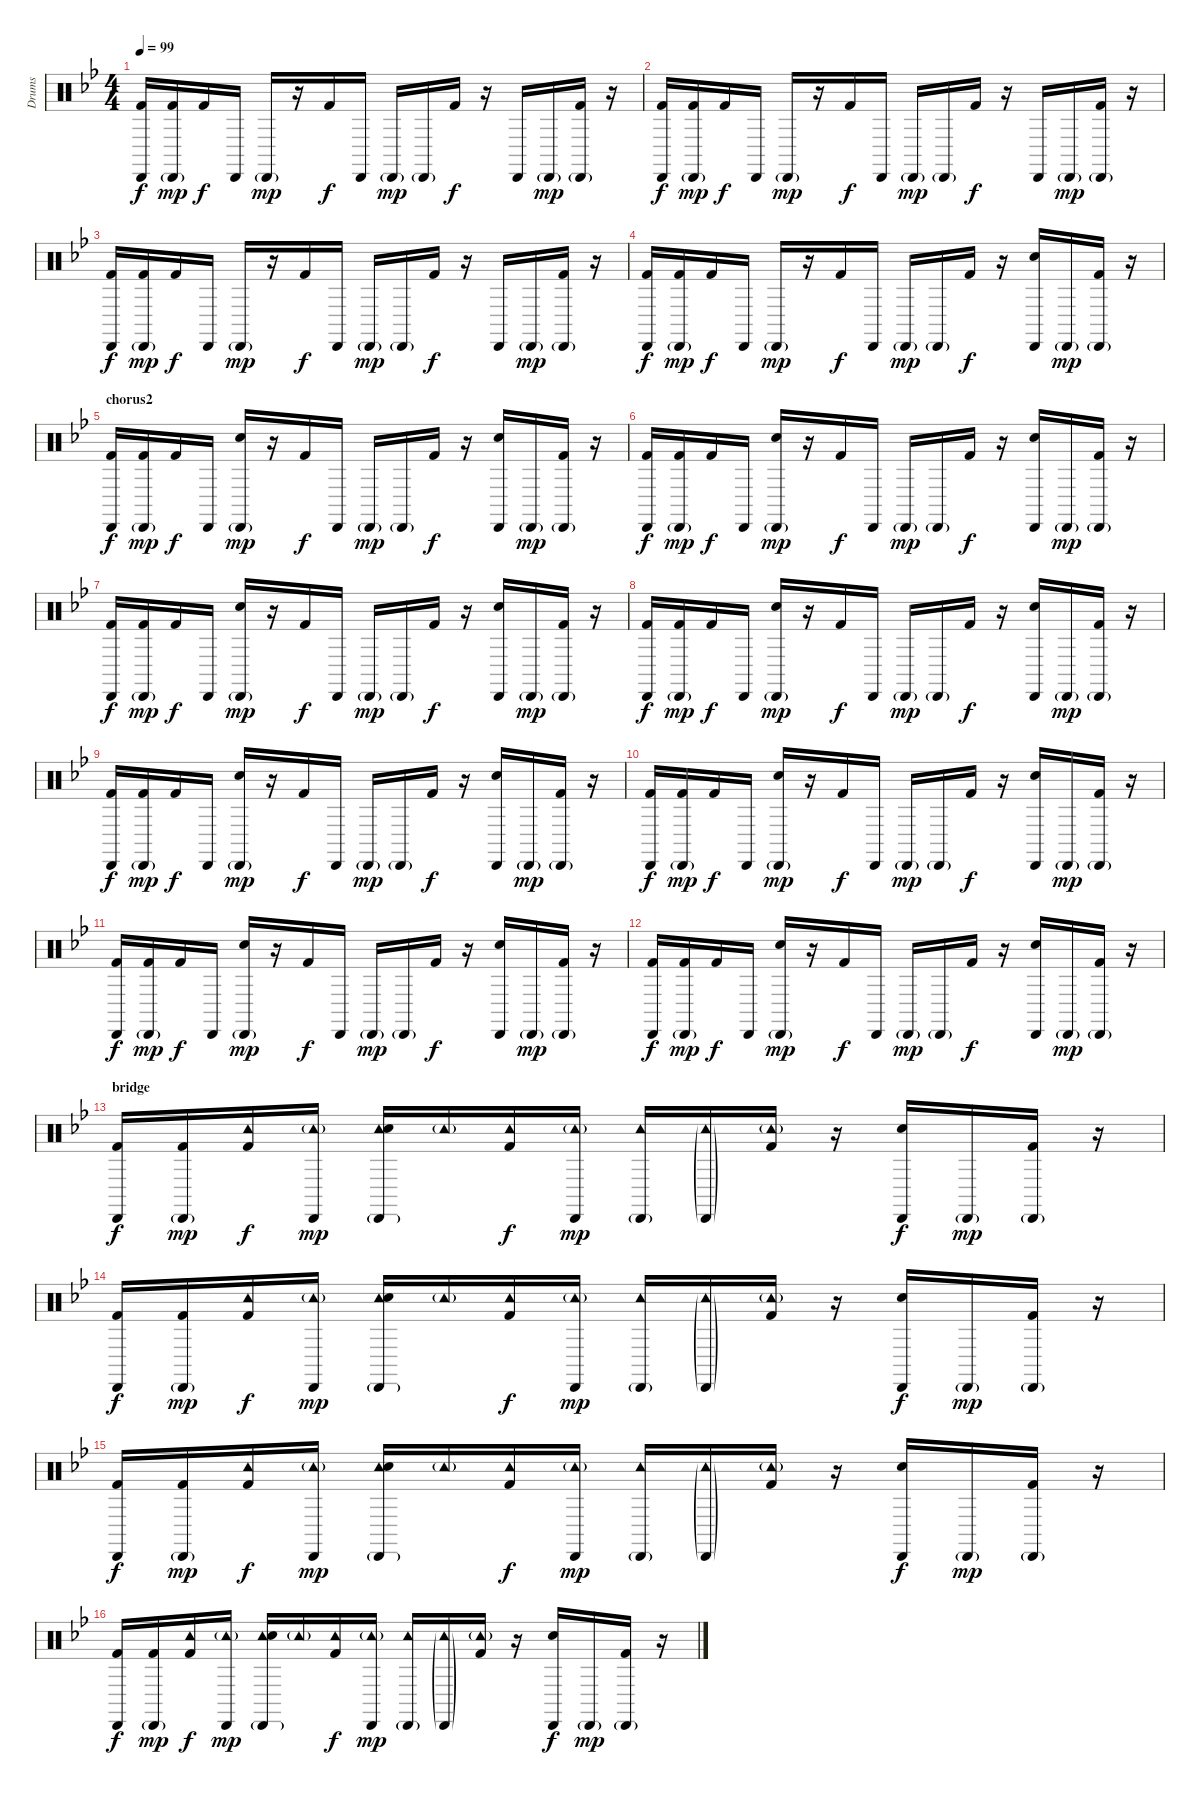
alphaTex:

\track ("Drums" "Drums") {instrument percussion}
\staff {score}
\articulation defaults
\ts (4 4)
\tempo 99
\clef neutral
\ks bb
("Cabasa (hit)" "Kick (hit) 2").16{dy f} ("Cabasa (hit)"{g} "Kick (hit) 2").16{dy mp} "Kick (hit) 2".16{dy f} "Cabasa (hit)".16 "Cabasa (hit)"{g}.16{dy mp} r.16 "Kick (hit) 2".16{dy f} "Cabasa (hit)".16 "Cabasa (hit)"{g}.16{dy mp} "Cabasa (hit)"{g}.16 "Kick (hit) 2".16{dy f} r.16 "Cabasa (hit)".16 "Cabasa (hit)"{g}.16{dy mp} ("Cabasa (hit)"{g} "Kick (hit) 2").16 r.16 |
("Cabasa (hit)" "Kick (hit) 2").16{dy f} ("Cabasa (hit)"{g} "Kick (hit) 2").16{dy mp} "Kick (hit) 2".16{dy f} "Cabasa (hit)".16 "Cabasa (hit)"{g}.16{dy mp} r.16 "Kick (hit) 2".16{dy f} "Cabasa (hit)".16 "Cabasa (hit)"{g}.16{dy mp} "Cabasa (hit)"{g}.16 "Kick (hit) 2".16{dy f} r.16 "Cabasa (hit)".16 "Cabasa (hit)"{g}.16{dy mp} ("Cabasa (hit)"{g} "Kick (hit) 2").16 r.16 |
("Cabasa (hit)" "Kick (hit) 2").16{dy f} ("Cabasa (hit)"{g} "Kick (hit) 2").16{dy mp} "Kick (hit) 2".16{dy f} "Cabasa (hit)".16 "Cabasa (hit)"{g}.16{dy mp} r.16 "Kick (hit) 2".16{dy f} "Cabasa (hit)".16 "Cabasa (hit)"{g}.16{dy mp} "Cabasa (hit)"{g}.16 "Kick (hit) 2".16{dy f} r.16 "Cabasa (hit)".16 "Cabasa (hit)"{g}.16{dy mp} ("Cabasa (hit)"{g} "Kick (hit) 2").16 r.16 |
("Cabasa (hit)" "Kick (hit) 2").16{dy f} ("Cabasa (hit)"{g} "Kick (hit) 2").16{dy mp} "Kick (hit) 2".16{dy f} "Cabasa (hit)".16 "Cabasa (hit)"{g}.16{dy mp} r.16 "Kick (hit) 2".16{dy f} "Cabasa (hit)".16 "Cabasa (hit)"{g}.16{dy mp} "Cabasa (hit)"{g}.16 "Kick (hit) 2".16{dy f} r.16 ("Cabasa (hit)" "Snare (hit) 2").16 "Cabasa (hit)"{g}.16{dy mp} ("Cabasa (hit)"{g} "Kick (hit) 2").16 r.16 |
\section ("" "chorus2")
("Cabasa (hit)" "Kick (hit) 2").16{dy f} ("Cabasa (hit)"{g} "Kick (hit) 2").16{dy mp} "Kick (hit) 2".16{dy f} "Cabasa (hit)".16 ("Cabasa (hit)"{g} "Snare (hit) 2").16{dy mp} r.16 "Kick (hit) 2".16{dy f} "Cabasa (hit)".16 "Cabasa (hit)"{g}.16{dy mp} "Cabasa (hit)"{g}.16 "Kick (hit) 2".16{dy f} r.16 ("Cabasa (hit)" "Snare (hit) 2").16 "Cabasa (hit)"{g}.16{dy mp} ("Cabasa (hit)"{g} "Kick (hit) 2").16 r.16 |
("Cabasa (hit)" "Kick (hit) 2").16{dy f} ("Cabasa (hit)"{g} "Kick (hit) 2").16{dy mp} "Kick (hit) 2".16{dy f} "Cabasa (hit)".16 ("Cabasa (hit)"{g} "Snare (hit) 2").16{dy mp} r.16 "Kick (hit) 2".16{dy f} "Cabasa (hit)".16 "Cabasa (hit)"{g}.16{dy mp} "Cabasa (hit)"{g}.16 "Kick (hit) 2".16{dy f} r.16 ("Cabasa (hit)" "Snare (hit) 2").16 "Cabasa (hit)"{g}.16{dy mp} ("Cabasa (hit)"{g} "Kick (hit) 2").16 r.16 |
("Cabasa (hit)" "Kick (hit) 2").16{dy f} ("Cabasa (hit)"{g} "Kick (hit) 2").16{dy mp} "Kick (hit) 2".16{dy f} "Cabasa (hit)".16 ("Cabasa (hit)"{g} "Snare (hit) 2").16{dy mp} r.16 "Kick (hit) 2".16{dy f} "Cabasa (hit)".16 "Cabasa (hit)"{g}.16{dy mp} "Cabasa (hit)"{g}.16 "Kick (hit) 2".16{dy f} r.16 ("Cabasa (hit)" "Snare (hit) 2").16 "Cabasa (hit)"{g}.16{dy mp} ("Cabasa (hit)"{g} "Kick (hit) 2").16 r.16 |
("Cabasa (hit)" "Kick (hit) 2").16{dy f} ("Cabasa (hit)"{g} "Kick (hit) 2").16{dy mp} "Kick (hit) 2".16{dy f} "Cabasa (hit)".16 ("Cabasa (hit)"{g} "Snare (hit) 2").16{dy mp} r.16 "Kick (hit) 2".16{dy f} "Cabasa (hit)".16 "Cabasa (hit)"{g}.16{dy mp} "Cabasa (hit)"{g}.16 "Kick (hit) 2".16{dy f} r.16 ("Cabasa (hit)" "Snare (hit) 2").16 "Cabasa (hit)"{g}.16{dy mp} ("Cabasa (hit)"{g} "Kick (hit) 2").16 r.16 |
("Cabasa (hit)" "Kick (hit) 2").16{dy f} ("Cabasa (hit)"{g} "Kick (hit) 2").16{dy mp} "Kick (hit) 2".16{dy f} "Cabasa (hit)".16 ("Cabasa (hit)"{g} "Snare (hit) 2").16{dy mp} r.16 "Kick (hit) 2".16{dy f} "Cabasa (hit)".16 "Cabasa (hit)"{g}.16{dy mp} "Cabasa (hit)"{g}.16 "Kick (hit) 2".16{dy f} r.16 ("Cabasa (hit)" "Snare (hit) 2").16 "Cabasa (hit)"{g}.16{dy mp} ("Cabasa (hit)"{g} "Kick (hit) 2").16 r.16 |
("Cabasa (hit)" "Kick (hit) 2").16{dy f} ("Cabasa (hit)"{g} "Kick (hit) 2").16{dy mp} "Kick (hit) 2".16{dy f} "Cabasa (hit)".16 ("Cabasa (hit)"{g} "Snare (hit) 2").16{dy mp} r.16 "Kick (hit) 2".16{dy f} "Cabasa (hit)".16 "Cabasa (hit)"{g}.16{dy mp} "Cabasa (hit)"{g}.16 "Kick (hit) 2".16{dy f} r.16 ("Cabasa (hit)" "Snare (hit) 2").16 "Cabasa (hit)"{g}.16{dy mp} ("Cabasa (hit)"{g} "Kick (hit) 2").16 r.16 |
("Cabasa (hit)" "Kick (hit) 2").16{dy f} ("Cabasa (hit)"{g} "Kick (hit) 2").16{dy mp} "Kick (hit) 2".16{dy f} "Cabasa (hit)".16 ("Cabasa (hit)"{g} "Snare (hit) 2").16{dy mp} r.16 "Kick (hit) 2".16{dy f} "Cabasa (hit)".16 "Cabasa (hit)"{g}.16{dy mp} "Cabasa (hit)"{g}.16 "Kick (hit) 2".16{dy f} r.16 ("Cabasa (hit)" "Snare (hit) 2").16 "Cabasa (hit)"{g}.16{dy mp} ("Cabasa (hit)"{g} "Kick (hit) 2").16 r.16 |
("Cabasa (hit)" "Kick (hit) 2").16{dy f} ("Cabasa (hit)"{g} "Kick (hit) 2").16{dy mp} "Kick (hit) 2".16{dy f} "Cabasa (hit)".16 ("Cabasa (hit)"{g} "Snare (hit) 2").16{dy mp} r.16 "Kick (hit) 2".16{dy f} "Cabasa (hit)".16 "Cabasa (hit)"{g}.16{dy mp} "Cabasa (hit)"{g}.16 "Kick (hit) 2".16{dy f} r.16 ("Cabasa (hit)" "Snare (hit) 2").16 "Cabasa (hit)"{g}.16{dy mp} ("Cabasa (hit)"{g} "Kick (hit) 2").16 r.16 |
\section ("" "bridge")
("Cabasa (hit)" "Kick (hit) 2").16{dy f} ("Cabasa (hit)"{g} "Kick (hit) 2").16{dy mp} ("Tambourine (hit)" "Kick (hit) 2").16{dy f} ("Cabasa (hit)" "Tambourine (hit)"{g}).16{dy mp} ("Cabasa (hit)"{g} "Tambourine (hit)" "Snare (hit) 2").16 "Tambourine (hit)"{g}.16 ("Tambourine (hit)" "Kick (hit) 2").16{dy f} ("Cabasa (hit)" "Tambourine (hit)"{g}).16{dy mp} ("Cabasa (hit)"{g} "Tambourine (hit)").16 ("Cabasa (hit)"{g} "Tambourine (hit)"{g}).16 ("Tambourine (hit)"{g} "Kick (hit) 2").16 r.16 ("Cabasa (hit)" "Snare (hit) 2").16{dy f} "Cabasa (hit)"{g}.16{dy mp} ("Cabasa (hit)"{g} "Kick (hit) 2").16 r.16 |
("Cabasa (hit)" "Kick (hit) 2").16{dy f} ("Cabasa (hit)"{g} "Kick (hit) 2").16{dy mp} ("Tambourine (hit)" "Kick (hit) 2").16{dy f} ("Cabasa (hit)" "Tambourine (hit)"{g}).16{dy mp} ("Cabasa (hit)"{g} "Tambourine (hit)" "Snare (hit) 2").16 "Tambourine (hit)"{g}.16 ("Tambourine (hit)" "Kick (hit) 2").16{dy f} ("Cabasa (hit)" "Tambourine (hit)"{g}).16{dy mp} ("Cabasa (hit)"{g} "Tambourine (hit)").16 ("Cabasa (hit)"{g} "Tambourine (hit)"{g}).16 ("Tambourine (hit)"{g} "Kick (hit) 2").16 r.16 ("Cabasa (hit)" "Snare (hit) 2").16{dy f} "Cabasa (hit)"{g}.16{dy mp} ("Cabasa (hit)"{g} "Kick (hit) 2").16 r.16 |
("Cabasa (hit)" "Kick (hit) 2").16{dy f} ("Cabasa (hit)"{g} "Kick (hit) 2").16{dy mp} ("Tambourine (hit)" "Kick (hit) 2").16{dy f} ("Cabasa (hit)" "Tambourine (hit)"{g}).16{dy mp} ("Cabasa (hit)"{g} "Tambourine (hit)" "Snare (hit) 2").16 "Tambourine (hit)"{g}.16 ("Tambourine (hit)" "Kick (hit) 2").16{dy f} ("Cabasa (hit)" "Tambourine (hit)"{g}).16{dy mp} ("Cabasa (hit)"{g} "Tambourine (hit)").16 ("Cabasa (hit)"{g} "Tambourine (hit)"{g}).16 ("Tambourine (hit)"{g} "Kick (hit) 2").16 r.16 ("Cabasa (hit)" "Snare (hit) 2").16{dy f} "Cabasa (hit)"{g}.16{dy mp} ("Cabasa (hit)"{g} "Kick (hit) 2").16 r.16 |
("Cabasa (hit)" "Kick (hit) 2").16{dy f} ("Cabasa (hit)"{g} "Kick (hit) 2").16{dy mp} ("Tambourine (hit)" "Kick (hit) 2").16{dy f} ("Cabasa (hit)" "Tambourine (hit)"{g}).16{dy mp} ("Cabasa (hit)"{g} "Tambourine (hit)" "Snare (hit) 2").16 "Tambourine (hit)"{g}.16 ("Tambourine (hit)" "Kick (hit) 2").16{dy f} ("Cabasa (hit)" "Tambourine (hit)"{g}).16{dy mp} ("Cabasa (hit)"{g} "Tambourine (hit)").16 ("Cabasa (hit)"{g} "Tambourine (hit)"{g}).16 ("Tambourine (hit)"{g} "Kick (hit) 2").16 r.16 ("Cabasa (hit)" "Snare (hit) 2").16{dy f} "Cabasa (hit)"{g}.16{dy mp} ("Cabasa (hit)"{g} "Kick (hit) 2").16 r.16
